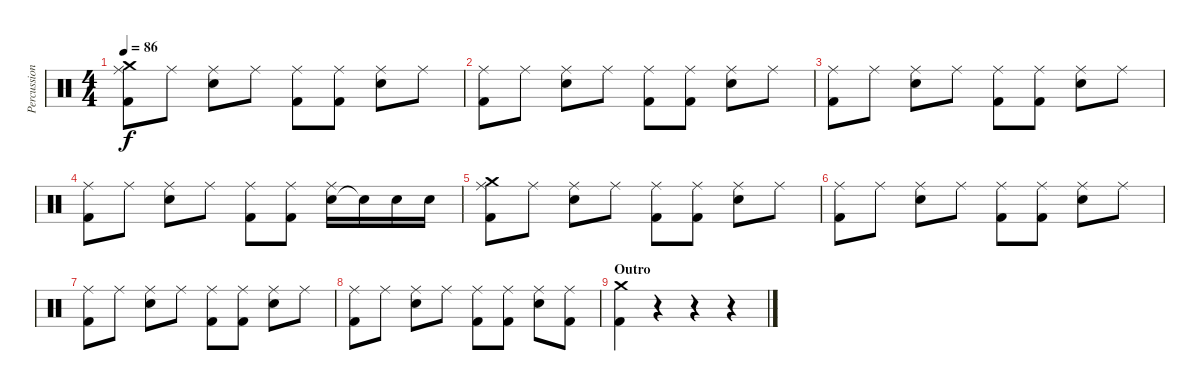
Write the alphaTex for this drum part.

\track ("Percussion" "Percussion") {instrument percussion}
\staff {score}
\articulation defaults
\ts (4 4)
\tempo 86
\clef neutral
\ks c
("Kick (hit) 2" "Ride (middle)" "Crash medium (hit)").8{dy f} "Ride (middle)".8 ("Electric Snare (hit)" "Ride (middle)").8 "Ride (middle)".8 ("Kick (hit) 2" "Ride (middle)").8 ("Kick (hit) 2" "Ride (middle)").8 ("Electric Snare (hit)" "Ride (middle)").8 "Ride (middle)".8 |
("Kick (hit) 2" "Ride (middle)").8 "Ride (middle)".8 ("Electric Snare (hit)" "Ride (middle)").8 "Ride (middle)".8 ("Kick (hit) 2" "Ride (middle)").8 ("Kick (hit) 2" "Ride (middle)").8 ("Electric Snare (hit)" "Ride (middle)").8 "Ride (middle)".8 |
("Kick (hit) 2" "Ride (middle)").8 "Ride (middle)".8 ("Electric Snare (hit)" "Ride (middle)").8 "Ride (middle)".8 ("Kick (hit) 2" "Ride (middle)").8 ("Kick (hit) 2" "Ride (middle)").8 ("Electric Snare (hit)" "Ride (middle)").8 "Ride (middle)".8 |
("Kick (hit) 2" "Ride (middle)").8 "Ride (middle)".8 ("Electric Snare (hit)" "Ride (middle)").8 "Ride (middle)".8 ("Kick (hit) 2" "Ride (middle)").8 ("Kick (hit) 2" "Ride (middle)").8 ("Electric Snare (hit)" "Ride (middle)").16 "Electric Snare (hit)"{t}.16 "Electric Snare (hit)".16 "Electric Snare (hit)".16 |
("Kick (hit) 2" "Ride (middle)" "Crash medium (hit)").8 "Ride (middle)".8 ("Electric Snare (hit)" "Ride (middle)").8 "Ride (middle)".8 ("Kick (hit) 2" "Ride (middle)").8 ("Kick (hit) 2" "Ride (middle)").8 ("Electric Snare (hit)" "Ride (middle)").8 "Ride (middle)".8 |
("Kick (hit) 2" "Ride (middle)").8 "Ride (middle)".8 ("Electric Snare (hit)" "Ride (middle)").8 "Ride (middle)".8 ("Kick (hit) 2" "Ride (middle)").8 ("Kick (hit) 2" "Ride (middle)").8 ("Electric Snare (hit)" "Ride (middle)").8 "Ride (middle)".8 |
("Kick (hit) 2" "Ride (middle)").8 "Ride (middle)".8 ("Electric Snare (hit)" "Ride (middle)").8 "Ride (middle)".8 ("Kick (hit) 2" "Ride (middle)").8 ("Kick (hit) 2" "Ride (middle)").8 ("Electric Snare (hit)" "Ride (middle)").8 "Ride (middle)".8 |
("Kick (hit) 2" "Ride (middle)").8 "Ride (middle)".8 ("Electric Snare (hit)" "Ride (middle)").8 "Ride (middle)".8 ("Kick (hit) 2" "Ride (middle)").8 ("Kick (hit) 2" "Ride (middle)").8 ("Electric Snare (hit)" "Ride (middle)").8 ("Kick (hit) 2" "Ride (middle)").8 |
\section ("" "Outro")
("Kick (hit) 2" "Crash medium (hit)").4 r.4 r.4 r.4
